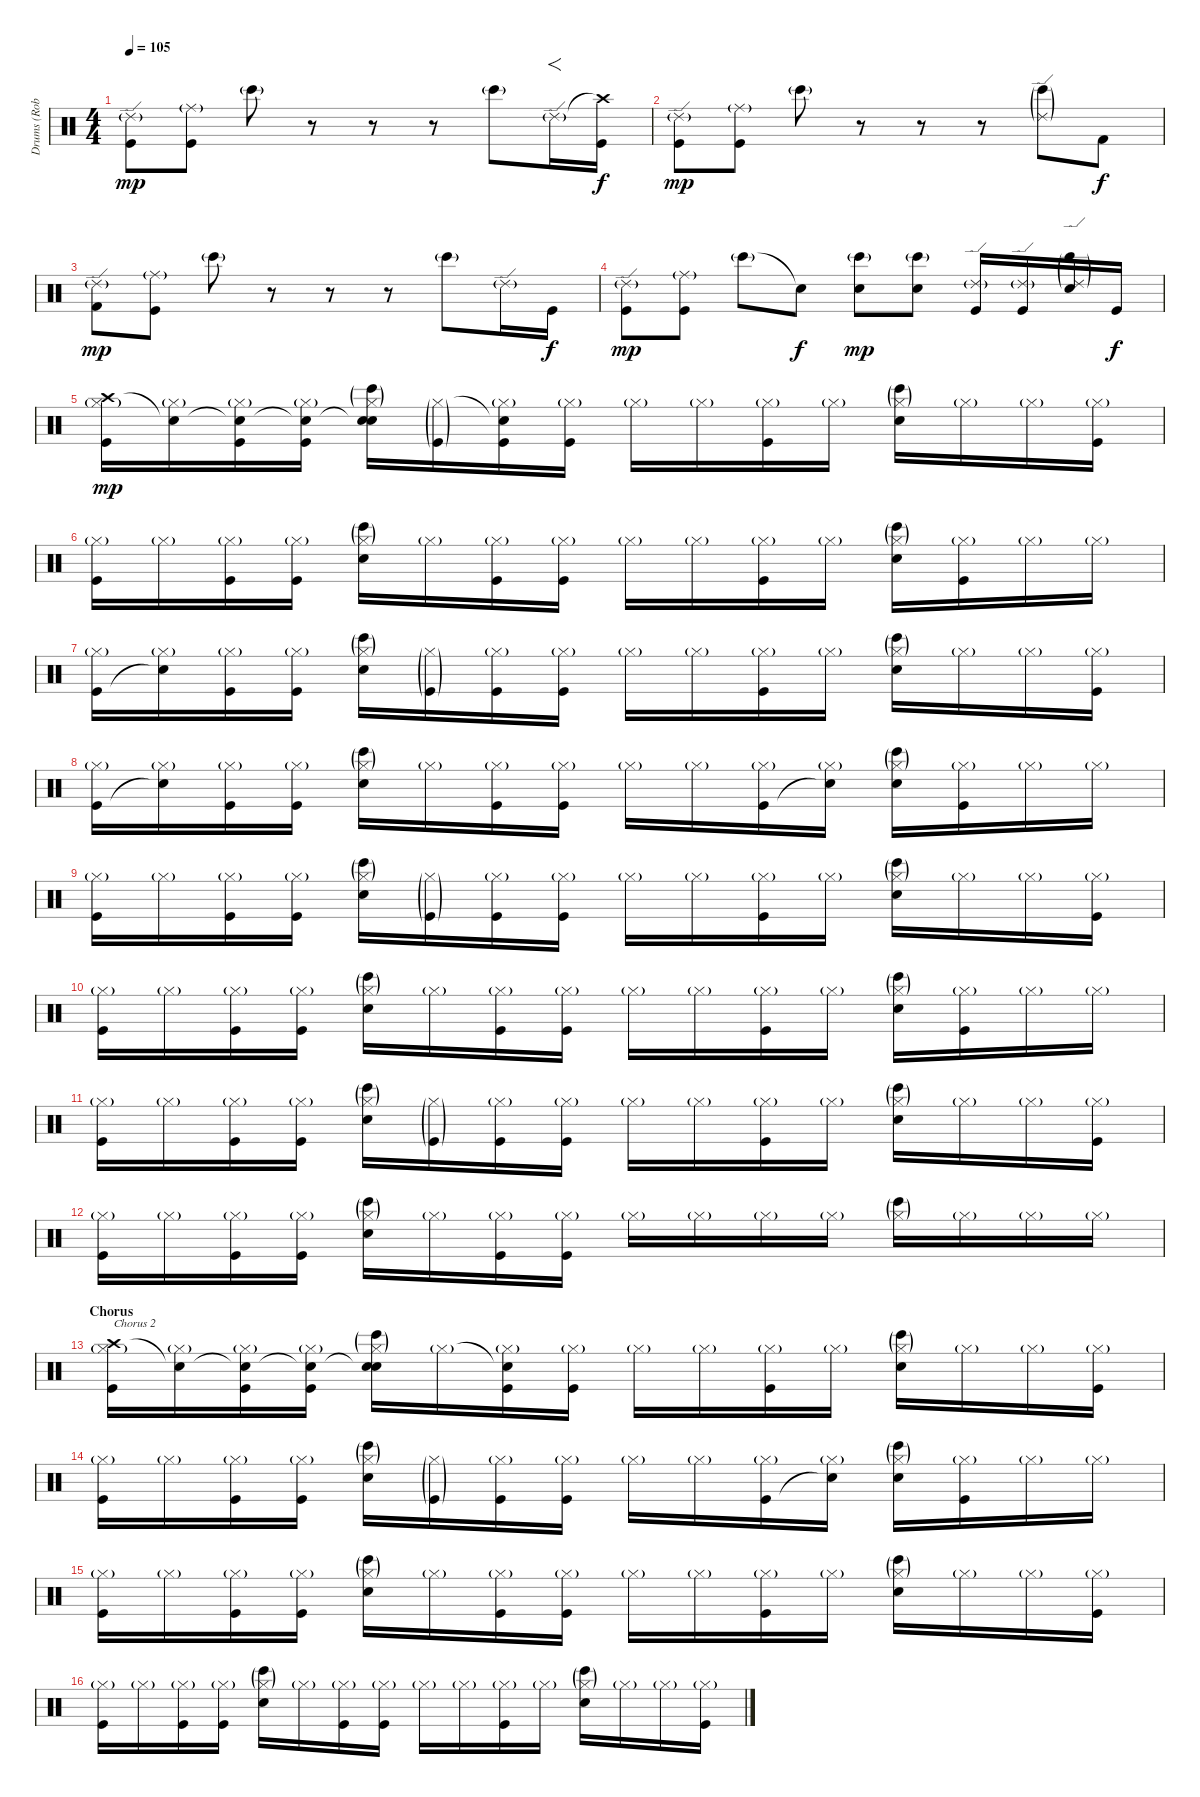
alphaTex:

\track ("Drums (Rob Bourdon)" "Drums (Rob") {instrument percussion}
\staff {score}
\articulation defaults
\ts (4 4)
\tempo 105
\clef neutral
\ks c
("Ride (edge) 2"{g} "Kick (hit)").8{dy mp} ("Ride (middle)"{g} "Kick (hit)").8 "Bongo High (hit)"{g}.8 r.8 r.8 r.8 "Bongo High (hit)"{g}.8 "Ride (edge) 2"{g}.16{f} ("Crash high (hit)"{t} "Kick (hit)").16{dy f} |
("Ride (edge) 2"{g} "Kick (hit)").8{dy mp} ("Ride (middle)"{g} "Kick (hit)").8 "Bongo High (hit)"{g}.8 r.8 r.8 r.8 ("Ride (edge) 2"{g} "Bongo High (hit)"{g}).8 "Kick (hit) 2".8{dy f} |
("Ride (edge) 2"{g} "Kick (hit) 2").8{dy mp} ("Ride (middle)"{g} "Kick (hit)").8 "Bongo High (hit)"{g}.8 r.8 r.8 r.8 "Bongo High (hit)"{g}.8 "Ride (edge) 2"{g}.16 "Kick (hit)".16{dy f} |
("Ride (edge) 2"{g} "Kick (hit)").8{dy mp} ("Ride (middle)"{g} "Kick (hit)").8 "Bongo High (hit)"{g}.8 "Snare (hit)"{t}.8{dy f} ("Bongo High (hit)"{g} "Electric Snare (hit)").8{dy mp} ("Bongo High (hit)"{g} "Electric Snare (hit)").8 ("Ride (edge) 2"{g} "Kick (hit)").16 ("Ride (edge) 2"{g} "Kick (hit)").16 ("Ride (edge) 2"{g} "Bongo High (hit)"{g} "Electric Snare (hit)").16 "Kick (hit)".16{dy f} |
("Crash high (hit)" "Hi-Hat (closed)"{g} "Kick (hit)").16{dy mp} ("Snare (hit)"{t} "Hi-Hat (closed)"{g}).16 ("Snare (hit)"{t} "Hi-Hat (closed)"{g} "Kick (hit)").16 ("Snare (hit)"{t} "Hi-Hat (closed)"{g} "Kick (hit)").16 ("Snare (hit)"{t} "Hi-Hat (closed)"{g} "Bongo High (hit)"{g} "Electric Snare (hit)").16 ("Hi-Hat (closed)"{g} "Kick (hit)"{g}).16 ("Snare (hit)"{t} "Hi-Hat (closed)"{g} "Kick (hit)").16 ("Hi-Hat (closed)"{g} "Kick (hit)").16 "Hi-Hat (closed)"{g}.16 "Hi-Hat (closed)"{g}.16 ("Hi-Hat (closed)"{g} "Kick (hit)").16 "Hi-Hat (closed)"{g}.16 ("Hi-Hat (closed)"{g} "Bongo High (hit)"{g} "Electric Snare (hit)").16 "Hi-Hat (closed)"{g}.16 "Hi-Hat (closed)"{g}.16 ("Hi-Hat (closed)"{g} "Kick (hit)").16 |
("Hi-Hat (closed)"{g} "Kick (hit)").16 "Hi-Hat (closed)"{g}.16 ("Hi-Hat (closed)"{g} "Kick (hit)").16 ("Hi-Hat (closed)"{g} "Kick (hit)").16 ("Hi-Hat (closed)"{g} "Bongo High (hit)"{g} "Electric Snare (hit)").16 "Hi-Hat (closed)"{g}.16 ("Hi-Hat (closed)"{g} "Kick (hit)").16 ("Hi-Hat (closed)"{g} "Kick (hit)").16 "Hi-Hat (closed)"{g}.16 "Hi-Hat (closed)"{g}.16 ("Hi-Hat (closed)"{g} "Kick (hit)").16 "Hi-Hat (closed)"{g}.16 ("Hi-Hat (closed)"{g} "Bongo High (hit)"{g} "Electric Snare (hit)").16 ("Hi-Hat (closed)"{g} "Kick (hit)").16 "Hi-Hat (closed)"{g}.16 "Hi-Hat (closed)"{g}.16 |
("Hi-Hat (closed)"{g} "Kick (hit)").16 ("Hi-Hat (closed)"{g} "Snare (hit)"{t}).16 ("Hi-Hat (closed)"{g} "Kick (hit)").16 ("Hi-Hat (closed)"{g} "Kick (hit)").16 ("Hi-Hat (closed)"{g} "Bongo High (hit)"{g} "Electric Snare (hit)").16 ("Hi-Hat (closed)"{g} "Kick (hit)"{g}).16 ("Hi-Hat (closed)"{g} "Kick (hit)").16 ("Hi-Hat (closed)"{g} "Kick (hit)").16 "Hi-Hat (closed)"{g}.16 "Hi-Hat (closed)"{g}.16 ("Hi-Hat (closed)"{g} "Kick (hit)").16 "Hi-Hat (closed)"{g}.16 ("Hi-Hat (closed)"{g} "Bongo High (hit)"{g} "Electric Snare (hit)").16 "Hi-Hat (closed)"{g}.16 "Hi-Hat (closed)"{g}.16 ("Hi-Hat (closed)"{g} "Kick (hit)").16 |
("Hi-Hat (closed)"{g} "Kick (hit)").16 ("Hi-Hat (closed)"{g} "Snare (hit)"{t}).16 ("Hi-Hat (closed)"{g} "Kick (hit)").16 ("Hi-Hat (closed)"{g} "Kick (hit)").16 ("Hi-Hat (closed)"{g} "Bongo High (hit)"{g} "Electric Snare (hit)").16 "Hi-Hat (closed)"{g}.16 ("Hi-Hat (closed)"{g} "Kick (hit)").16 ("Hi-Hat (closed)"{g} "Kick (hit)").16 "Hi-Hat (closed)"{g}.16 "Hi-Hat (closed)"{g}.16 ("Hi-Hat (closed)"{g} "Kick (hit)").16 ("Hi-Hat (closed)"{g} "Snare (hit)"{t}).16 ("Hi-Hat (closed)"{g} "Bongo High (hit)"{g} "Electric Snare (hit)").16 ("Hi-Hat (closed)"{g} "Kick (hit)").16 "Hi-Hat (closed)"{g}.16 "Hi-Hat (closed)"{g}.16 |
("Hi-Hat (closed)"{g} "Kick (hit)").16 "Hi-Hat (closed)"{g}.16 ("Hi-Hat (closed)"{g} "Kick (hit)").16 ("Hi-Hat (closed)"{g} "Kick (hit)").16 ("Hi-Hat (closed)"{g} "Bongo High (hit)"{g} "Electric Snare (hit)").16 ("Hi-Hat (closed)"{g} "Kick (hit)"{g}).16 ("Hi-Hat (closed)"{g} "Kick (hit)").16 ("Hi-Hat (closed)"{g} "Kick (hit)").16 "Hi-Hat (closed)"{g}.16 "Hi-Hat (closed)"{g}.16 ("Hi-Hat (closed)"{g} "Kick (hit)").16 "Hi-Hat (closed)"{g}.16 ("Hi-Hat (closed)"{g} "Bongo High (hit)"{g} "Electric Snare (hit)").16 "Hi-Hat (closed)"{g}.16 "Hi-Hat (closed)"{g}.16 ("Hi-Hat (closed)"{g} "Kick (hit)").16 |
("Hi-Hat (closed)"{g} "Kick (hit)").16 "Hi-Hat (closed)"{g}.16 ("Hi-Hat (closed)"{g} "Kick (hit)").16 ("Hi-Hat (closed)"{g} "Kick (hit)").16 ("Hi-Hat (closed)"{g} "Bongo High (hit)"{g} "Electric Snare (hit)").16 "Hi-Hat (closed)"{g}.16 ("Hi-Hat (closed)"{g} "Kick (hit)").16 ("Hi-Hat (closed)"{g} "Kick (hit)").16 "Hi-Hat (closed)"{g}.16 "Hi-Hat (closed)"{g}.16 ("Hi-Hat (closed)"{g} "Kick (hit)").16 "Hi-Hat (closed)"{g}.16 ("Hi-Hat (closed)"{g} "Bongo High (hit)"{g} "Electric Snare (hit)").16 ("Hi-Hat (closed)"{g} "Kick (hit)").16 "Hi-Hat (closed)"{g}.16 "Hi-Hat (closed)"{g}.16 |
("Hi-Hat (closed)"{g} "Kick (hit)").16 "Hi-Hat (closed)"{g}.16 ("Hi-Hat (closed)"{g} "Kick (hit)").16 ("Hi-Hat (closed)"{g} "Kick (hit)").16 ("Hi-Hat (closed)"{g} "Bongo High (hit)"{g} "Electric Snare (hit)").16 ("Hi-Hat (closed)"{g} "Kick (hit)"{g}).16 ("Hi-Hat (closed)"{g} "Kick (hit)").16 ("Hi-Hat (closed)"{g} "Kick (hit)").16 "Hi-Hat (closed)"{g}.16 "Hi-Hat (closed)"{g}.16 ("Hi-Hat (closed)"{g} "Kick (hit)").16 "Hi-Hat (closed)"{g}.16 ("Hi-Hat (closed)"{g} "Bongo High (hit)"{g} "Electric Snare (hit)").16 "Hi-Hat (closed)"{g}.16 "Hi-Hat (closed)"{g}.16 ("Hi-Hat (closed)"{g} "Kick (hit)").16 |
("Hi-Hat (closed)"{g} "Kick (hit)").16 "Hi-Hat (closed)"{g}.16 ("Hi-Hat (closed)"{g} "Kick (hit)").16 ("Hi-Hat (closed)"{g} "Kick (hit)").16 ("Hi-Hat (closed)"{g} "Bongo High (hit)"{g} "Electric Snare (hit)").16 "Hi-Hat (closed)"{g}.16 ("Hi-Hat (closed)"{g} "Kick (hit)").16 ("Hi-Hat (closed)"{g} "Kick (hit)").16 "Hi-Hat (closed)"{g}.16 "Hi-Hat (closed)"{g}.16 "Hi-Hat (closed)"{g}.16 "Hi-Hat (closed)"{g}.16 ("Hi-Hat (closed)"{g} "Bongo High (hit)"{g}).16 "Hi-Hat (closed)"{g}.16 "Hi-Hat (closed)"{g}.16 "Hi-Hat (closed)"{g}.16 |
\section ("" "Chorus")
("Crash high (hit)" "Hi-Hat (closed)"{g} "Kick (hit)").16{txt "Chorus 2"} ("Snare (hit)"{t} "Hi-Hat (closed)"{g}).16 ("Snare (hit)"{t} "Hi-Hat (closed)"{g} "Kick (hit)").16 ("Snare (hit)"{t} "Hi-Hat (closed)"{g} "Kick (hit)").16 ("Snare (hit)"{t} "Hi-Hat (closed)"{g} "Bongo High (hit)"{g} "Electric Snare (hit)").16 "Hi-Hat (closed)"{g}.16 ("Snare (hit)"{t} "Hi-Hat (closed)"{g} "Kick (hit)").16 ("Hi-Hat (closed)"{g} "Kick (hit)").16 "Hi-Hat (closed)"{g}.16 "Hi-Hat (closed)"{g}.16 ("Hi-Hat (closed)"{g} "Kick (hit)").16 "Hi-Hat (closed)"{g}.16 ("Hi-Hat (closed)"{g} "Bongo High (hit)"{g} "Electric Snare (hit)").16 "Hi-Hat (closed)"{g}.16 "Hi-Hat (closed)"{g}.16 ("Hi-Hat (closed)"{g} "Kick (hit)").16 |
("Hi-Hat (closed)"{g} "Kick (hit)").16 "Hi-Hat (closed)"{g}.16 ("Hi-Hat (closed)"{g} "Kick (hit)").16 ("Hi-Hat (closed)"{g} "Kick (hit)").16 ("Hi-Hat (closed)"{g} "Bongo High (hit)"{g} "Electric Snare (hit)").16 ("Hi-Hat (closed)"{g} "Kick (hit)"{g}).16 ("Hi-Hat (closed)"{g} "Kick (hit)").16 ("Hi-Hat (closed)"{g} "Kick (hit)").16 "Hi-Hat (closed)"{g}.16 "Hi-Hat (closed)"{g}.16 ("Hi-Hat (closed)"{g} "Kick (hit)").16 ("Hi-Hat (closed)"{g} "Snare (hit)"{t}).16 ("Hi-Hat (closed)"{g} "Bongo High (hit)"{g} "Electric Snare (hit)").16 ("Hi-Hat (closed)"{g} "Kick (hit)").16 "Hi-Hat (closed)"{g}.16 "Hi-Hat (closed)"{g}.16 |
("Hi-Hat (closed)"{g} "Kick (hit)").16 "Hi-Hat (closed)"{g}.16 ("Hi-Hat (closed)"{g} "Kick (hit)").16 ("Hi-Hat (closed)"{g} "Kick (hit)").16 ("Hi-Hat (closed)"{g} "Bongo High (hit)"{g} "Electric Snare (hit)").16 "Hi-Hat (closed)"{g}.16 ("Hi-Hat (closed)"{g} "Kick (hit)").16 ("Hi-Hat (closed)"{g} "Kick (hit)").16 "Hi-Hat (closed)"{g}.16 "Hi-Hat (closed)"{g}.16 ("Hi-Hat (closed)"{g} "Kick (hit)").16 "Hi-Hat (closed)"{g}.16 ("Hi-Hat (closed)"{g} "Bongo High (hit)"{g} "Electric Snare (hit)").16 "Hi-Hat (closed)"{g}.16 "Hi-Hat (closed)"{g}.16 ("Hi-Hat (closed)"{g} "Kick (hit)").16 |
("Hi-Hat (closed)"{g} "Kick (hit)").16 "Hi-Hat (closed)"{g}.16 ("Hi-Hat (closed)"{g} "Kick (hit)").16 ("Hi-Hat (closed)"{g} "Kick (hit)").16 ("Hi-Hat (closed)"{g} "Bongo High (hit)"{g} "Electric Snare (hit)").16 "Hi-Hat (closed)"{g}.16 ("Hi-Hat (closed)"{g} "Kick (hit)").16 ("Hi-Hat (closed)"{g} "Kick (hit)").16 "Hi-Hat (closed)"{g}.16 "Hi-Hat (closed)"{g}.16 ("Hi-Hat (closed)"{g} "Kick (hit)").16 "Hi-Hat (closed)"{g}.16 ("Hi-Hat (closed)"{g} "Bongo High (hit)"{g} "Electric Snare (hit)").16 "Hi-Hat (closed)"{g}.16 "Hi-Hat (closed)"{g}.16 ("Hi-Hat (closed)"{g} "Kick (hit)").16
